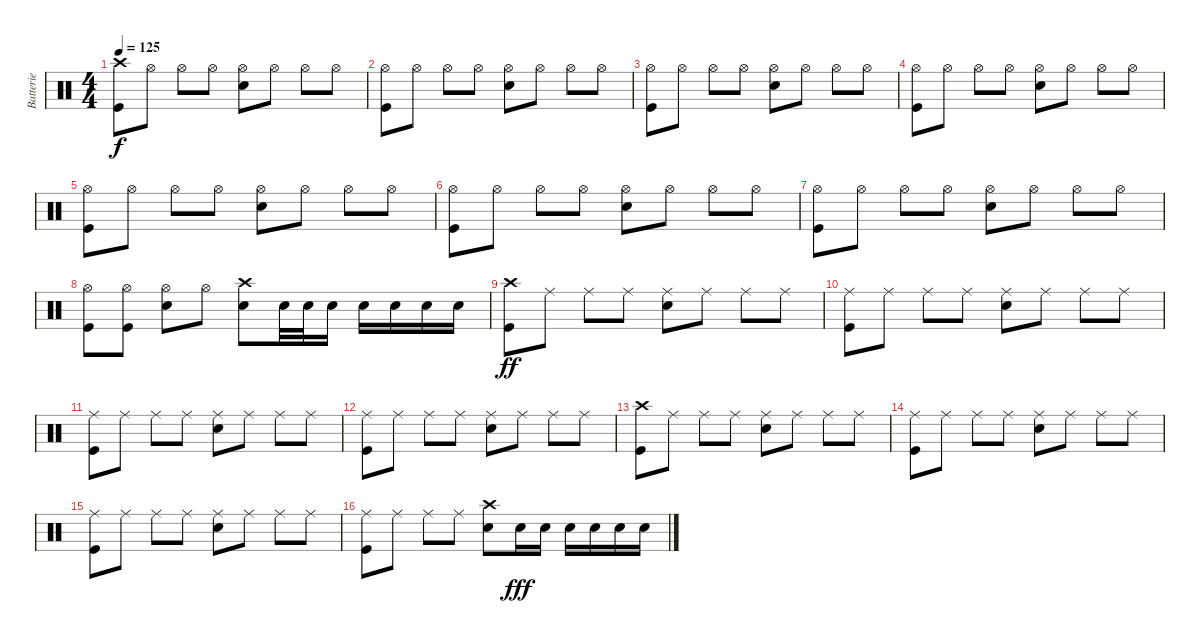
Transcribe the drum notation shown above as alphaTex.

\track ("Batterie" "Batterie") {instrument percussion}
\staff {score}
\articulation defaults
\ts (4 4)
\tempo 125
\clef neutral
\ks c
("Crash high (hit)" "Kick (hit)").8{dy f} "Hi-Hat (open)".8 "Hi-Hat (open)".8 "Hi-Hat (open)".8 ("Hi-Hat (open)" "Electric Snare (hit)").8 "Hi-Hat (open)".8 "Hi-Hat (open)".8 "Hi-Hat (open)".8 |
("Hi-Hat (open)" "Kick (hit)").8 "Hi-Hat (open)".8 "Hi-Hat (open)".8 "Hi-Hat (open)".8 ("Hi-Hat (open)" "Electric Snare (hit)").8 "Hi-Hat (open)".8 "Hi-Hat (open)".8 "Hi-Hat (open)".8 |
("Hi-Hat (open)" "Kick (hit)").8 "Hi-Hat (open)".8 "Hi-Hat (open)".8 "Hi-Hat (open)".8 ("Hi-Hat (open)" "Electric Snare (hit)").8 "Hi-Hat (open)".8 "Hi-Hat (open)".8 "Hi-Hat (open)".8 |
("Hi-Hat (open)" "Kick (hit)").8 "Hi-Hat (open)".8 "Hi-Hat (open)".8 "Hi-Hat (open)".8 ("Hi-Hat (open)" "Electric Snare (hit)").8 "Hi-Hat (open)".8 "Hi-Hat (open)".8 "Hi-Hat (open)".8 |
("Hi-Hat (open)" "Kick (hit)").8 "Hi-Hat (open)".8 "Hi-Hat (open)".8 "Hi-Hat (open)".8 ("Hi-Hat (open)" "Electric Snare (hit)").8 "Hi-Hat (open)".8 "Hi-Hat (open)".8 "Hi-Hat (open)".8 |
("Hi-Hat (open)" "Kick (hit)").8 "Hi-Hat (open)".8 "Hi-Hat (open)".8 "Hi-Hat (open)".8 ("Hi-Hat (open)" "Electric Snare (hit)").8 "Hi-Hat (open)".8 "Hi-Hat (open)".8 "Hi-Hat (open)".8 |
("Hi-Hat (open)" "Kick (hit)").8 "Hi-Hat (open)".8 "Hi-Hat (open)".8 "Hi-Hat (open)".8 ("Hi-Hat (open)" "Electric Snare (hit)").8 "Hi-Hat (open)".8 "Hi-Hat (open)".8 "Hi-Hat (open)".8 |
("Hi-Hat (open)" "Kick (hit)").8 ("Hi-Hat (open)" "Kick (hit)").8 ("Hi-Hat (open)" "Electric Snare (hit)").8 "Hi-Hat (open)".8 ("Crash high (hit)" "Electric Snare (hit)").8 "Electric Snare (hit)".32 "Electric Snare (hit)".32 "Electric Snare (hit)".16 "Electric Snare (hit)".16 "Electric Snare (hit)".16 "Electric Snare (hit)".16 "Electric Snare (hit)".16 |
("Crash high (hit)" "Kick (hit)").8{dy ff} "Ride (middle)".8 "Ride (middle)".8 "Ride (middle)".8 ("Ride (middle)" "Electric Snare (hit)").8 "Ride (middle)".8 "Ride (middle)".8 "Ride (middle)".8 |
("Ride (middle)" "Kick (hit)").8 "Ride (middle)".8 "Ride (middle)".8 "Ride (middle)".8 ("Ride (middle)" "Electric Snare (hit)").8 "Ride (middle)".8 "Ride (middle)".8 "Ride (middle)".8 |
("Ride (middle)" "Kick (hit)").8 "Ride (middle)".8 "Ride (middle)".8 "Ride (middle)".8 ("Ride (middle)" "Electric Snare (hit)").8 "Ride (middle)".8 "Ride (middle)".8 "Ride (middle)".8 |
("Ride (middle)" "Kick (hit)").8 "Ride (middle)".8 "Ride (middle)".8 "Ride (middle)".8 ("Ride (middle)" "Electric Snare (hit)").8 "Ride (middle)".8 "Ride (middle)".8 "Ride (middle)".8 |
("Crash high (hit)" "Kick (hit)").8 "Ride (middle)".8 "Ride (middle)".8 "Ride (middle)".8 ("Ride (middle)" "Electric Snare (hit)").8 "Ride (middle)".8 "Ride (middle)".8 "Ride (middle)".8 |
("Ride (middle)" "Kick (hit)").8 "Ride (middle)".8 "Ride (middle)".8 "Ride (middle)".8 ("Ride (middle)" "Electric Snare (hit)").8 "Ride (middle)".8 "Ride (middle)".8 "Ride (middle)".8 |
("Ride (middle)" "Kick (hit)").8 "Ride (middle)".8 "Ride (middle)".8 "Ride (middle)".8 ("Ride (middle)" "Electric Snare (hit)").8 "Ride (middle)".8 "Ride (middle)".8 "Ride (middle)".8 |
("Ride (middle)" "Kick (hit)").8 "Ride (middle)".8 "Ride (middle)".8 "Ride (middle)".8 ("Crash high (hit)" "Electric Snare (hit)").8 "Electric Snare (hit)".16{dy fff} "Electric Snare (hit)".16 "Electric Snare (hit)".16 "Electric Snare (hit)".16 "Electric Snare (hit)".16 "Electric Snare (hit)".16
